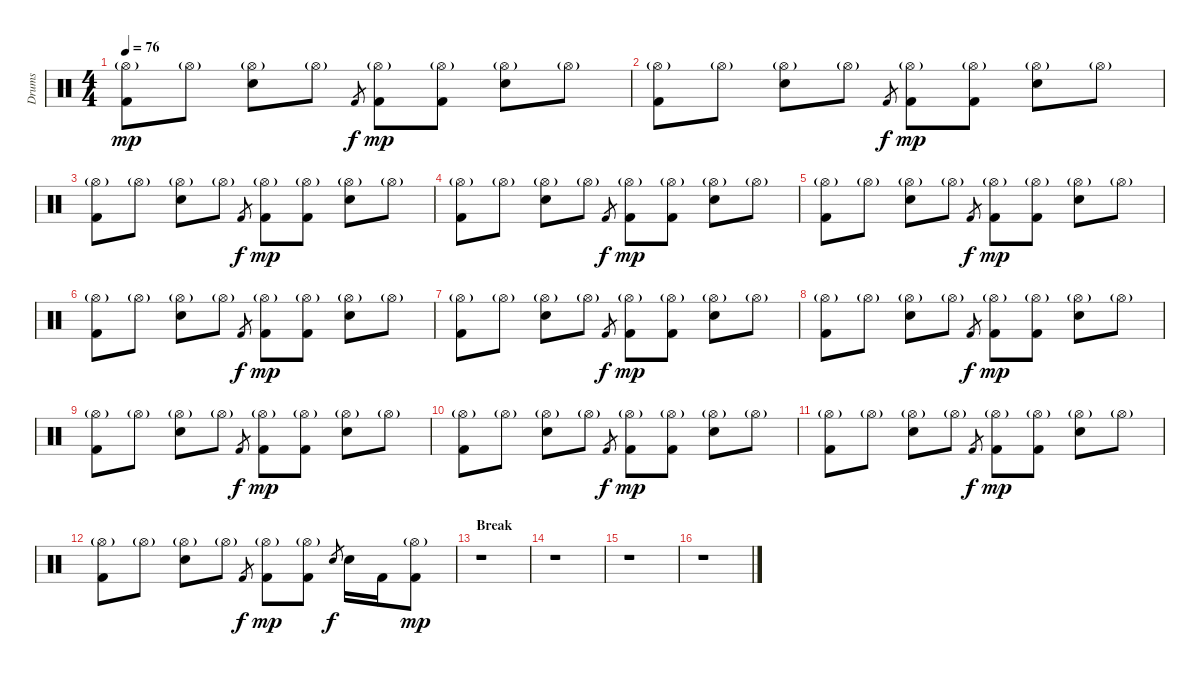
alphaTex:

\track ("Drums" "Drums") {instrument percussion}
\staff {score}
\articulation defaults
\ts (4 4)
\tempo 76
\clef neutral
\ks c
("Kick (hit) 2" "Hi-Hat (open)"{g}).8{dy mp} "Hi-Hat (open)"{g}.8 ("Electric Snare (hit)" "Hi-Hat (open)"{g}).8 "Hi-Hat (open)"{g}.8 "Kick (hit) 2".8{gr dy f} ("Kick (hit) 2" "Hi-Hat (open)"{g}).8{dy mp} ("Kick (hit) 2" "Hi-Hat (open)"{g}).8 ("Electric Snare (hit)" "Hi-Hat (open)"{g}).8 "Hi-Hat (open)"{g}.8 |
("Kick (hit) 2" "Hi-Hat (open)"{g}).8 "Hi-Hat (open)"{g}.8 ("Electric Snare (hit)" "Hi-Hat (open)"{g}).8 "Hi-Hat (open)"{g}.8 "Kick (hit) 2".8{gr dy f} ("Kick (hit) 2" "Hi-Hat (open)"{g}).8{dy mp} ("Kick (hit) 2" "Hi-Hat (open)"{g}).8 ("Electric Snare (hit)" "Hi-Hat (open)"{g}).8 "Hi-Hat (open)"{g}.8 |
("Kick (hit) 2" "Hi-Hat (open)"{g}).8 "Hi-Hat (open)"{g}.8 ("Electric Snare (hit)" "Hi-Hat (open)"{g}).8 "Hi-Hat (open)"{g}.8 "Kick (hit) 2".8{gr dy f} ("Kick (hit) 2" "Hi-Hat (open)"{g}).8{dy mp} ("Kick (hit) 2" "Hi-Hat (open)"{g}).8 ("Electric Snare (hit)" "Hi-Hat (open)"{g}).8 "Hi-Hat (open)"{g}.8 |
("Kick (hit) 2" "Hi-Hat (open)"{g}).8 "Hi-Hat (open)"{g}.8 ("Electric Snare (hit)" "Hi-Hat (open)"{g}).8 "Hi-Hat (open)"{g}.8 "Kick (hit) 2".8{gr dy f} ("Kick (hit) 2" "Hi-Hat (open)"{g}).8{dy mp} ("Kick (hit) 2" "Hi-Hat (open)"{g}).8 ("Electric Snare (hit)" "Hi-Hat (open)"{g}).8 "Hi-Hat (open)"{g}.8 |
("Kick (hit) 2" "Hi-Hat (open)"{g}).8 "Hi-Hat (open)"{g}.8 ("Electric Snare (hit)" "Hi-Hat (open)"{g}).8 "Hi-Hat (open)"{g}.8 "Kick (hit) 2".8{gr dy f} ("Kick (hit) 2" "Hi-Hat (open)"{g}).8{dy mp} ("Kick (hit) 2" "Hi-Hat (open)"{g}).8 ("Electric Snare (hit)" "Hi-Hat (open)"{g}).8 "Hi-Hat (open)"{g}.8 |
("Kick (hit) 2" "Hi-Hat (open)"{g}).8 "Hi-Hat (open)"{g}.8 ("Electric Snare (hit)" "Hi-Hat (open)"{g}).8 "Hi-Hat (open)"{g}.8 "Kick (hit) 2".8{gr dy f} ("Kick (hit) 2" "Hi-Hat (open)"{g}).8{dy mp} ("Kick (hit) 2" "Hi-Hat (open)"{g}).8 ("Electric Snare (hit)" "Hi-Hat (open)"{g}).8 "Hi-Hat (open)"{g}.8 |
("Kick (hit) 2" "Hi-Hat (open)"{g}).8 "Hi-Hat (open)"{g}.8 ("Electric Snare (hit)" "Hi-Hat (open)"{g}).8 "Hi-Hat (open)"{g}.8 "Kick (hit) 2".8{gr dy f} ("Kick (hit) 2" "Hi-Hat (open)"{g}).8{dy mp} ("Kick (hit) 2" "Hi-Hat (open)"{g}).8 ("Electric Snare (hit)" "Hi-Hat (open)"{g}).8 "Hi-Hat (open)"{g}.8 |
("Kick (hit) 2" "Hi-Hat (open)"{g}).8 "Hi-Hat (open)"{g}.8 ("Electric Snare (hit)" "Hi-Hat (open)"{g}).8 "Hi-Hat (open)"{g}.8 "Kick (hit) 2".8{gr dy f} ("Kick (hit) 2" "Hi-Hat (open)"{g}).8{dy mp} ("Kick (hit) 2" "Hi-Hat (open)"{g}).8 ("Electric Snare (hit)" "Hi-Hat (open)"{g}).8 "Hi-Hat (open)"{g}.8 |
("Kick (hit) 2" "Hi-Hat (open)"{g}).8 "Hi-Hat (open)"{g}.8 ("Electric Snare (hit)" "Hi-Hat (open)"{g}).8 "Hi-Hat (open)"{g}.8 "Kick (hit) 2".8{gr dy f} ("Kick (hit) 2" "Hi-Hat (open)"{g}).8{dy mp} ("Kick (hit) 2" "Hi-Hat (open)"{g}).8 ("Electric Snare (hit)" "Hi-Hat (open)"{g}).8 "Hi-Hat (open)"{g}.8 |
("Kick (hit) 2" "Hi-Hat (open)"{g}).8 "Hi-Hat (open)"{g}.8 ("Electric Snare (hit)" "Hi-Hat (open)"{g}).8 "Hi-Hat (open)"{g}.8 "Kick (hit) 2".8{gr dy f} ("Kick (hit) 2" "Hi-Hat (open)"{g}).8{dy mp} ("Kick (hit) 2" "Hi-Hat (open)"{g}).8 ("Electric Snare (hit)" "Hi-Hat (open)"{g}).8 "Hi-Hat (open)"{g}.8 |
("Kick (hit) 2" "Hi-Hat (open)"{g}).8 "Hi-Hat (open)"{g}.8 ("Electric Snare (hit)" "Hi-Hat (open)"{g}).8 "Hi-Hat (open)"{g}.8 "Kick (hit) 2".8{gr dy f} ("Kick (hit) 2" "Hi-Hat (open)"{g}).8{dy mp} ("Kick (hit) 2" "Hi-Hat (open)"{g}).8 ("Electric Snare (hit)" "Hi-Hat (open)"{g}).8 "Hi-Hat (open)"{g}.8 |
("Kick (hit) 2" "Hi-Hat (open)"{g}).8 "Hi-Hat (open)"{g}.8 ("Electric Snare (hit)" "Hi-Hat (open)"{g}).8 "Hi-Hat (open)"{g}.8 "Kick (hit) 2".8{gr dy f} ("Kick (hit) 2" "Hi-Hat (open)"{g}).8{dy mp} ("Kick (hit) 2" "Hi-Hat (open)"{g}).8 "Electric Snare (hit)".8{gr dy f} "Electric Snare (hit)".16 "Kick (hit) 2".16 ("Kick (hit) 2" "Hi-Hat (open)"{g}).8{dy mp} |
\section ("" "Break")
r.1 |
r.1 |
r.1 |
r.1
